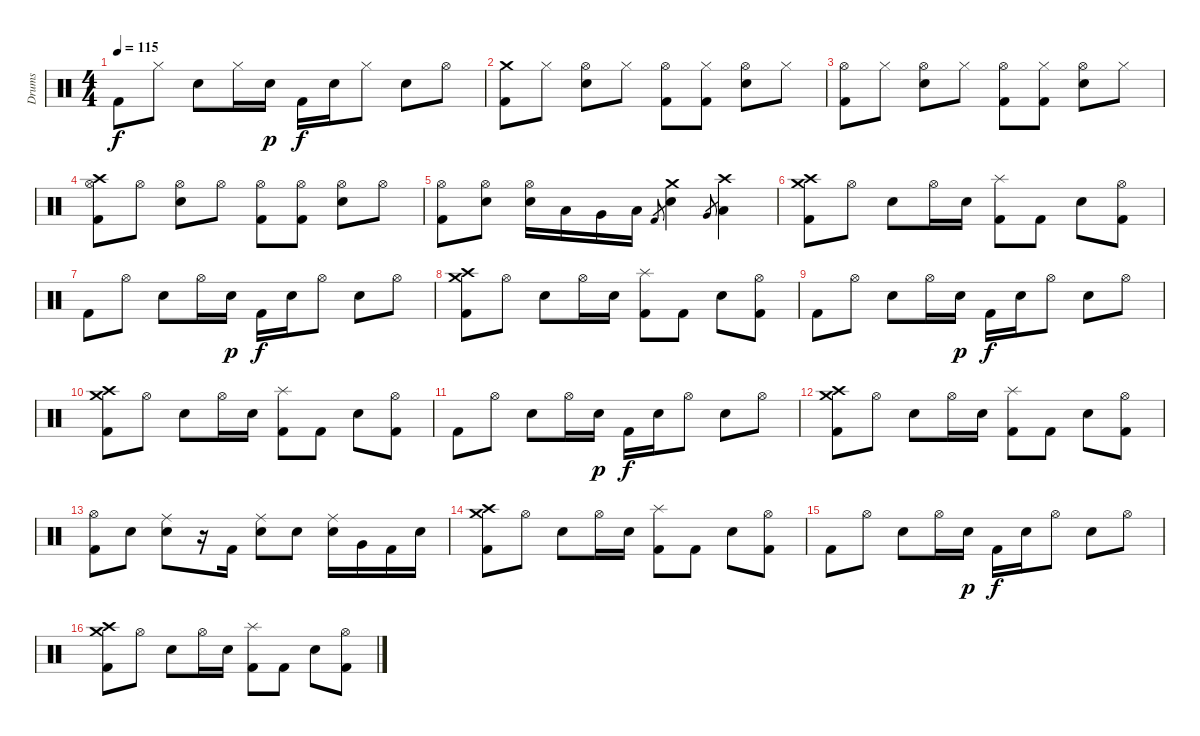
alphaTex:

\track ("Drums" "Drums") {instrument percussion}
\staff {score}
\articulation defaults
\ts (4 4)
\tempo 115
\clef neutral
\ks c "Kick (hit) 2".8{dy f} "Hi-Hat (closed)".8 "Snare (hit) 2".8 "Hi-Hat (closed)".16 "Snare (hit) 2".16{dy p} "Kick (hit) 2".16{dy f} "Snare (hit) 2".16 "Hi-Hat (closed)".8 "Snare (hit) 2".8 "Hi-Hat (open)".8
|
("Crash medium (hit)" "Kick (hit) 2").8 "Hi-Hat (closed)".8 ("Hi-Hat (open)" "Snare (hit) 2").8 "Hi-Hat (closed)".8 ("Hi-Hat (open)" "Kick (hit) 2").8 ("Hi-Hat (closed)" "Kick (hit) 2").8 ("Hi-Hat (open)" "Snare (hit) 2").8 "Hi-Hat (closed)".8 |
("Hi-Hat (open)" "Kick (hit) 2").8 "Hi-Hat (closed)".8 ("Hi-Hat (open)" "Snare (hit) 2").8 "Hi-Hat (closed)".8 ("Hi-Hat (open)" "Kick (hit) 2").8 ("Hi-Hat (closed)" "Kick (hit) 2").8 ("Hi-Hat (open)" "Snare (hit) 2").8 "Hi-Hat (closed)".8 |
("Hi-Hat (open)" "Kick (hit) 2" "Crash high (hit)").8 "Hi-Hat (open)".8 ("Hi-Hat (open)" "Snare (hit) 2").8 "Hi-Hat (open)".8 ("Hi-Hat (open)" "Kick (hit) 2").8 ("Hi-Hat (open)" "Kick (hit) 2").8 ("Hi-Hat (open)" "Snare (hit) 2").8 "Hi-Hat (open)".8 |
("Hi-Hat (open)" "Kick (hit) 2").8 ("Hi-Hat (open)" "Snare (hit) 2").8 ("Hi-Hat (open)" "Snare (hit) 2").16 "Low Tom (hit)".16 "Very Low Tom (hit)".16 "Low Floor Tom (hit)".16 "Kick (hit) 2".8{gr} ("Crash medium (hit)" "Snare (hit) 2").4 "Very Low Tom (hit)".8{gr} ("Crash high (hit)" "Low Tom (hit)").4 |
("Crash medium (hit)" "Kick (hit) 2" "Crash high (hit)").8 "Hi-Hat (open)".8 "Snare (hit) 2".8 "Hi-Hat (open)".16 "Snare (hit) 2".16 ("Splash (hit)" "Kick (hit) 2").8 "Kick (hit) 2".8 "Snare (hit) 2".8 ("Hi-Hat (open)" "Kick (hit) 2").8 |
"Kick (hit) 2".8 "Hi-Hat (open)".8 "Snare (hit) 2".8 "Hi-Hat (open)".16 "Snare (hit) 2".16{dy p} "Kick (hit) 2".16{dy f} "Snare (hit) 2".16 "Hi-Hat (open)".8 "Snare (hit) 2".8 "Hi-Hat (open)".8 |
("Crash medium (hit)" "Kick (hit) 2" "Crash high (hit)").8 "Hi-Hat (open)".8 "Snare (hit) 2".8 "Hi-Hat (open)".16 "Snare (hit) 2".16 ("Splash (hit)" "Kick (hit) 2").8 "Kick (hit) 2".8 "Snare (hit) 2".8 ("Hi-Hat (open)" "Kick (hit) 2").8 |
"Kick (hit) 2".8 "Hi-Hat (open)".8 "Snare (hit) 2".8 "Hi-Hat (open)".16 "Snare (hit) 2".16{dy p} "Kick (hit) 2".16{dy f} "Snare (hit) 2".16 "Hi-Hat (open)".8 "Snare (hit) 2".8 "Hi-Hat (open)".8 |
("Crash medium (hit)" "Kick (hit) 2" "Crash high (hit)").8 "Hi-Hat (open)".8 "Snare (hit) 2".8 "Hi-Hat (open)".16 "Snare (hit) 2".16 ("Splash (hit)" "Kick (hit) 2").8 "Kick (hit) 2".8 "Snare (hit) 2".8 ("Hi-Hat (open)" "Kick (hit) 2").8 |
"Kick (hit) 2".8 "Hi-Hat (open)".8 "Snare (hit) 2".8 "Hi-Hat (open)".16 "Snare (hit) 2".16{dy p} "Kick (hit) 2".16{dy f} "Snare (hit) 2".16 "Hi-Hat (open)".8 "Snare (hit) 2".8 "Hi-Hat (open)".8 |
("Crash medium (hit)" "Kick (hit) 2" "Crash high (hit)").8 "Hi-Hat (open)".8 "Snare (hit) 2".8 "Hi-Hat (open)".16 "Snare (hit) 2".16 ("Splash (hit)" "Kick (hit) 2").8 "Kick (hit) 2".8 "Snare (hit) 2".8 ("Hi-Hat (open)" "Kick (hit) 2").8 |
("Hi-Hat (open)" "Kick (hit) 2").8 "Snare (hit) 2".8 ("Ride (middle)" "Snare (hit) 2").8 r.16 "Kick (hit) 2".16 ("Ride (middle)" "Snare (hit) 2").8 "Snare (hit) 2".8 ("Ride (middle)" "Snare (hit) 2").16 "Very Low Tom (hit)".16 "Kick (hit) 2".16 "Snare (hit) 2".16 |
("Crash medium (hit)" "Kick (hit) 2" "Crash high (hit)").8 "Hi-Hat (open)".8 "Snare (hit) 2".8 "Hi-Hat (open)".16 "Snare (hit) 2".16 ("Splash (hit)" "Kick (hit) 2").8 "Kick (hit) 2".8 "Snare (hit) 2".8 ("Hi-Hat (open)" "Kick (hit) 2").8 |
"Kick (hit) 2".8 "Hi-Hat (open)".8 "Snare (hit) 2".8 "Hi-Hat (open)".16 "Snare (hit) 2".16{dy p} "Kick (hit) 2".16{dy f} "Snare (hit) 2".16 "Hi-Hat (open)".8 "Snare (hit) 2".8 "Hi-Hat (open)".8 |
("Crash medium (hit)" "Kick (hit) 2" "Crash high (hit)").8 "Hi-Hat (open)".8 "Snare (hit) 2".8 "Hi-Hat (open)".16 "Snare (hit) 2".16 ("Splash (hit)" "Kick (hit) 2").8 "Kick (hit) 2".8 "Snare (hit) 2".8 ("Hi-Hat (open)" "Kick (hit) 2").8
